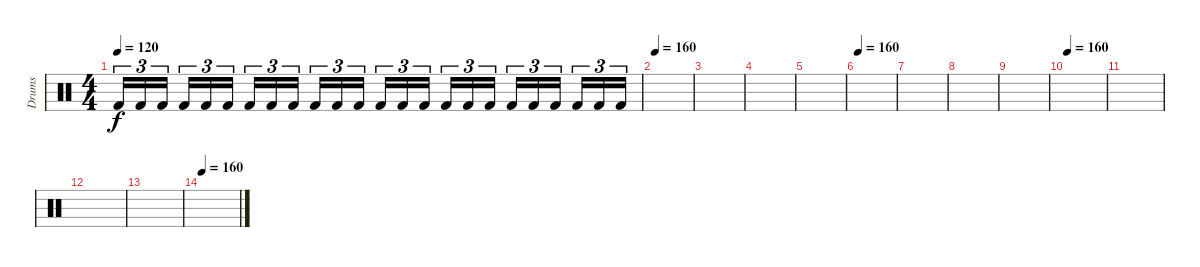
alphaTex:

\track ("Drums" "Drums") {instrument percussion}
\staff {score}
\articulation defaults
\ts (4 4)
\tempo 120
\clef neutral
\ks c "Kick (hit) 2".16{tu (3 2) dy f} "Kick (hit) 2".16{tu (3 2)} "Kick (hit) 2".16{tu (3 2) beam splitsecondary} "Kick (hit) 2".16{tu (3 2)} "Kick (hit) 2".16{tu (3 2)} "Kick (hit) 2".16{tu (3 2)} "Kick (hit) 2".16{tu (3 2)} "Kick (hit) 2".16{tu (3 2)} "Kick (hit) 2".16{tu (3 2) beam splitsecondary} "Kick (hit) 2".16{tu (3 2)} "Kick (hit) 2".16{tu (3 2)} "Kick (hit) 2".16{tu (3 2)} "Kick (hit) 2".16{tu (3 2)} "Kick (hit) 2".16{tu (3 2)} "Kick (hit) 2".16{tu (3 2) beam splitsecondary} "Kick (hit) 2".16{tu (3 2)} "Kick (hit) 2".16{tu (3 2)} "Kick (hit) 2".16{tu (3 2)} "Kick (hit) 2".16{tu (3 2)} "Kick (hit) 2".16{tu (3 2)} "Kick (hit) 2".16{tu (3 2) beam splitsecondary} "Kick (hit) 2".16{tu (3 2)} "Kick (hit) 2".16{tu (3 2)} "Kick (hit) 2".16{tu (3 2)}
|
\tempo 160
|
|
|
|
\tempo 160
|
|
|
|
\tempo 160
|
|
|
|
\tempo 160
